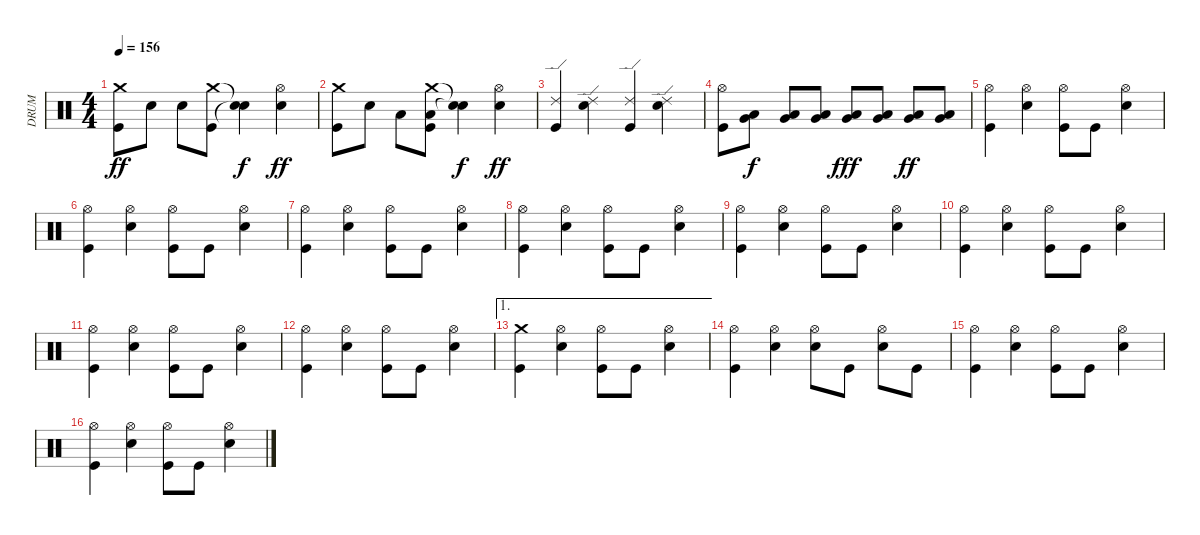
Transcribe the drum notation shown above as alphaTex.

\track ("DRUM" "DRUM") {instrument percussion}
\staff {score}
\articulation defaults
\ts (4 4)
\tempo 156
\clef neutral
\ks c
("Crash medium (hit)" "Kick (hit)").8{dy ff} "Snare (hit) 2".8 "Snare (hit) 2".8 ("Crash medium (hit)" "Kick (hit)").8 ("Snare (hit)"{t} "Snare (hit)"{t}).4{dy f} ("Hi-Hat (open)" "Snare (hit) 2").4{dy ff} |
("Crash medium (hit)" "Kick (hit)").8 "Snare (hit) 2".8 "Low Tom (hit)".8 ("Crash medium (hit)" "Low Tom (hit)" "Kick (hit)").8 ("Snare (hit)"{t} "Snare (hit)"{t}).4{dy f} ("Hi-Hat (open)" "Snare (hit) 2").4{dy ff} |
("Ride (edge) 2" "Kick (hit)").4 ("Ride (edge) 2" "Snare (hit) 2").4 ("Ride (edge) 2" "Kick (hit)").4 ("Ride (edge) 2" "Snare (hit) 2").4 |
("Hi-Hat (open)" "Kick (hit)").8 ("Very Low Tom (hit)" "Low Tom (hit)").8{dy f} ("Very Low Tom (hit)" "Low Tom (hit)").8 ("Very Low Tom (hit)" "Low Tom (hit)").8 ("Very Low Tom (hit)" "Low Tom (hit)").8{dy fff} ("Very Low Tom (hit)" "Low Tom (hit)").8 ("Very Low Tom (hit)" "Low Tom (hit)").8{dy ff} ("Very Low Tom (hit)" "Low Tom (hit)").8 |
("Hi-Hat (open)" "Kick (hit)").4 ("Hi-Hat (open)" "Snare (hit) 2").4 ("Hi-Hat (open)" "Kick (hit)").8 "Kick (hit)".8 ("Hi-Hat (open)" "Snare (hit) 2").4 |
("Hi-Hat (open)" "Kick (hit)").4 ("Hi-Hat (open)" "Snare (hit) 2").4 ("Hi-Hat (open)" "Kick (hit)").8 "Kick (hit)".8 ("Hi-Hat (open)" "Snare (hit) 2").4 |
("Hi-Hat (open)" "Kick (hit)").4 ("Hi-Hat (open)" "Snare (hit) 2").4 ("Hi-Hat (open)" "Kick (hit)").8 "Kick (hit)".8 ("Hi-Hat (open)" "Snare (hit) 2").4 |
("Hi-Hat (open)" "Kick (hit)").4 ("Hi-Hat (open)" "Snare (hit) 2").4 ("Hi-Hat (open)" "Kick (hit)").8 "Kick (hit)".8 ("Hi-Hat (open)" "Snare (hit) 2").4 |
("Hi-Hat (open)" "Kick (hit)").4 ("Hi-Hat (open)" "Snare (hit) 2").4 ("Hi-Hat (open)" "Kick (hit)").8 "Kick (hit)".8 ("Hi-Hat (open)" "Snare (hit) 2").4 |
("Hi-Hat (open)" "Kick (hit)").4 ("Hi-Hat (open)" "Snare (hit) 2").4 ("Hi-Hat (open)" "Kick (hit)").8 "Kick (hit)".8 ("Hi-Hat (open)" "Snare (hit) 2").4 |
("Hi-Hat (open)" "Kick (hit)").4 ("Hi-Hat (open)" "Snare (hit) 2").4 ("Hi-Hat (open)" "Kick (hit)").8 "Kick (hit)".8 ("Hi-Hat (open)" "Snare (hit) 2").4 |
("Hi-Hat (open)" "Kick (hit)").4 ("Hi-Hat (open)" "Snare (hit) 2").4 ("Hi-Hat (open)" "Kick (hit)").8 "Kick (hit)".8 ("Hi-Hat (open)" "Snare (hit) 2").4 |
\ae 1
("Crash medium (hit)" "Kick (hit)").4 ("Hi-Hat (open)" "Snare (hit) 2").4 ("Hi-Hat (open)" "Kick (hit)").8 "Kick (hit)".8 ("Hi-Hat (open)" "Snare (hit) 2").4 |
("Hi-Hat (open)" "Kick (hit)").4 ("Hi-Hat (open)" "Snare (hit) 2").4 ("Hi-Hat (open)" "Snare (hit) 2").8 "Kick (hit)".8 ("Hi-Hat (open)" "Snare (hit) 2").8 "Kick (hit)".8 |
("Hi-Hat (open)" "Kick (hit)").4 ("Hi-Hat (open)" "Snare (hit) 2").4 ("Hi-Hat (open)" "Kick (hit)").8 "Kick (hit)".8 ("Hi-Hat (open)" "Snare (hit) 2").4 |
("Hi-Hat (open)" "Kick (hit)").4 ("Hi-Hat (open)" "Snare (hit) 2").4 ("Hi-Hat (open)" "Kick (hit)").8 "Kick (hit)".8 ("Hi-Hat (open)" "Snare (hit) 2").4
